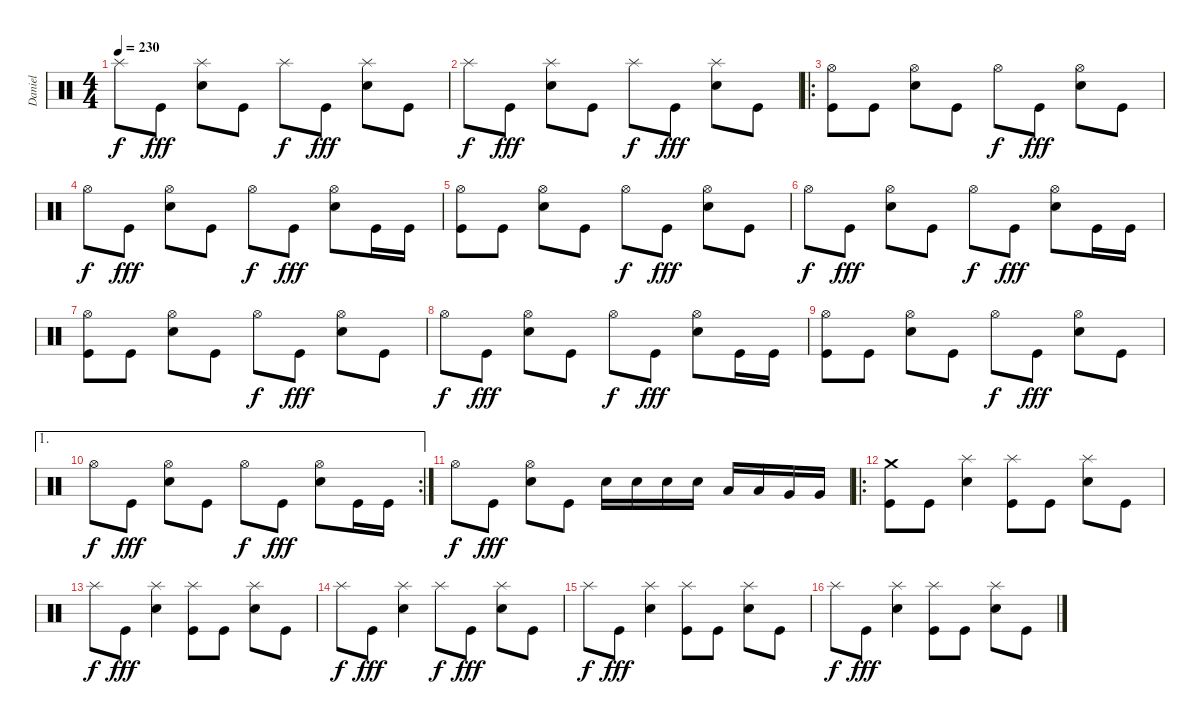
\track ("Daniel" "Daniel") {instrument percussion}
\staff {score}
\articulation defaults
\ts (4 4)
\tempo 230
\clef neutral
\ks c "Splash (hit)".8{dy f} "Kick (hit)".8{dy fff}
("Electric Snare (hit)" "Splash (hit)").8 "Kick (hit)".8 "Splash (hit)".8{dy f} "Kick (hit)".8{dy fff} ("Electric Snare (hit)" "Splash (hit)").8 "Kick (hit)".8 |
"Splash (hit)".8{dy f} "Kick (hit)".8{dy fff} ("Electric Snare (hit)" "Splash (hit)").8 "Kick (hit)".8 "Splash (hit)".8{dy f} "Kick (hit)".8{dy fff} ("Electric Snare (hit)" "Splash (hit)").8 "Kick (hit)".8 |
\ro
("Kick (hit)" "Hi-Hat (open)").8 "Kick (hit)".8 ("Electric Snare (hit)" "Hi-Hat (open)").8 "Kick (hit)".8 "Hi-Hat (open)".8{dy f} "Kick (hit)".8{dy fff} ("Electric Snare (hit)" "Hi-Hat (open)").8 "Kick (hit)".8 |
"Hi-Hat (open)".8{dy f} "Kick (hit)".8{dy fff} ("Electric Snare (hit)" "Hi-Hat (open)").8 "Kick (hit)".8 "Hi-Hat (open)".8{dy f} "Kick (hit)".8{dy fff} ("Electric Snare (hit)" "Hi-Hat (open)").8 "Kick (hit)".16 "Kick (hit)".16 |
("Kick (hit)" "Hi-Hat (open)").8 "Kick (hit)".8 ("Electric Snare (hit)" "Hi-Hat (open)").8 "Kick (hit)".8 "Hi-Hat (open)".8{dy f} "Kick (hit)".8{dy fff} ("Electric Snare (hit)" "Hi-Hat (open)").8 "Kick (hit)".8 |
"Hi-Hat (open)".8{dy f} "Kick (hit)".8{dy fff} ("Electric Snare (hit)" "Hi-Hat (open)").8 "Kick (hit)".8 "Hi-Hat (open)".8{dy f} "Kick (hit)".8{dy fff} ("Electric Snare (hit)" "Hi-Hat (open)").8 "Kick (hit)".16 "Kick (hit)".16 |
("Kick (hit)" "Hi-Hat (open)").8 "Kick (hit)".8 ("Electric Snare (hit)" "Hi-Hat (open)").8 "Kick (hit)".8 "Hi-Hat (open)".8{dy f} "Kick (hit)".8{dy fff} ("Electric Snare (hit)" "Hi-Hat (open)").8 "Kick (hit)".8 |
"Hi-Hat (open)".8{dy f} "Kick (hit)".8{dy fff} ("Electric Snare (hit)" "Hi-Hat (open)").8 "Kick (hit)".8 "Hi-Hat (open)".8{dy f} "Kick (hit)".8{dy fff} ("Electric Snare (hit)" "Hi-Hat (open)").8 "Kick (hit)".16 "Kick (hit)".16 |
("Kick (hit)" "Hi-Hat (open)").8 "Kick (hit)".8 ("Electric Snare (hit)" "Hi-Hat (open)").8 "Kick (hit)".8 "Hi-Hat (open)".8{dy f} "Kick (hit)".8{dy fff} ("Electric Snare (hit)" "Hi-Hat (open)").8 "Kick (hit)".8 |
\ae 1
\rc 2 "Hi-Hat (open)".8{dy f} "Kick (hit)".8{dy fff}
("Electric Snare (hit)" "Hi-Hat (open)").8 "Kick (hit)".8 "Hi-Hat (open)".8{dy f} "Kick (hit)".8{dy fff} ("Electric Snare (hit)" "Hi-Hat (open)").8 "Kick (hit)".16 "Kick (hit)".16 |
"Hi-Hat (open)".8{dy f} "Kick (hit)".8{dy fff} ("Electric Snare (hit)" "Hi-Hat (open)").8 "Kick (hit)".8 "Electric Snare (hit)".16 "Electric Snare (hit)".16 "Electric Snare (hit)".16 "Electric Snare (hit)".16 "Low Tom (hit)".16 "Low Tom (hit)".16 "Very Low Tom (hit)".16 "Very Low Tom (hit)".16 |
\ro
("Kick (hit)" "Crash medium (hit)").8 "Kick (hit)".8 ("Electric Snare (hit)" "Splash (hit)").4 ("Kick (hit)" "Splash (hit)").8 "Kick (hit)".8 ("Electric Snare (hit)" "Splash (hit)").8 "Kick (hit)".8 |
"Splash (hit)".8{dy f} "Kick (hit)".8{dy fff} ("Electric Snare (hit)" "Splash (hit)").4 ("Kick (hit)" "Splash (hit)").8 "Kick (hit)".8 ("Electric Snare (hit)" "Splash (hit)").8 "Kick (hit)".8 |
"Splash (hit)".8{dy f} "Kick (hit)".8{dy fff} ("Electric Snare (hit)" "Splash (hit)").4 "Splash (hit)".8{dy f} "Kick (hit)".8{dy fff} ("Electric Snare (hit)" "Splash (hit)").8 "Kick (hit)".8 |
"Splash (hit)".8{dy f} "Kick (hit)".8{dy fff} ("Electric Snare (hit)" "Splash (hit)").4 ("Kick (hit)" "Splash (hit)").8 "Kick (hit)".8 ("Electric Snare (hit)" "Splash (hit)").8 "Kick (hit)".8 |
"Splash (hit)".8{dy f} "Kick (hit)".8{dy fff} ("Electric Snare (hit)" "Splash (hit)").4 ("Kick (hit)" "Splash (hit)").8 "Kick (hit)".8 ("Electric Snare (hit)" "Splash (hit)").8 "Kick (hit)".8
